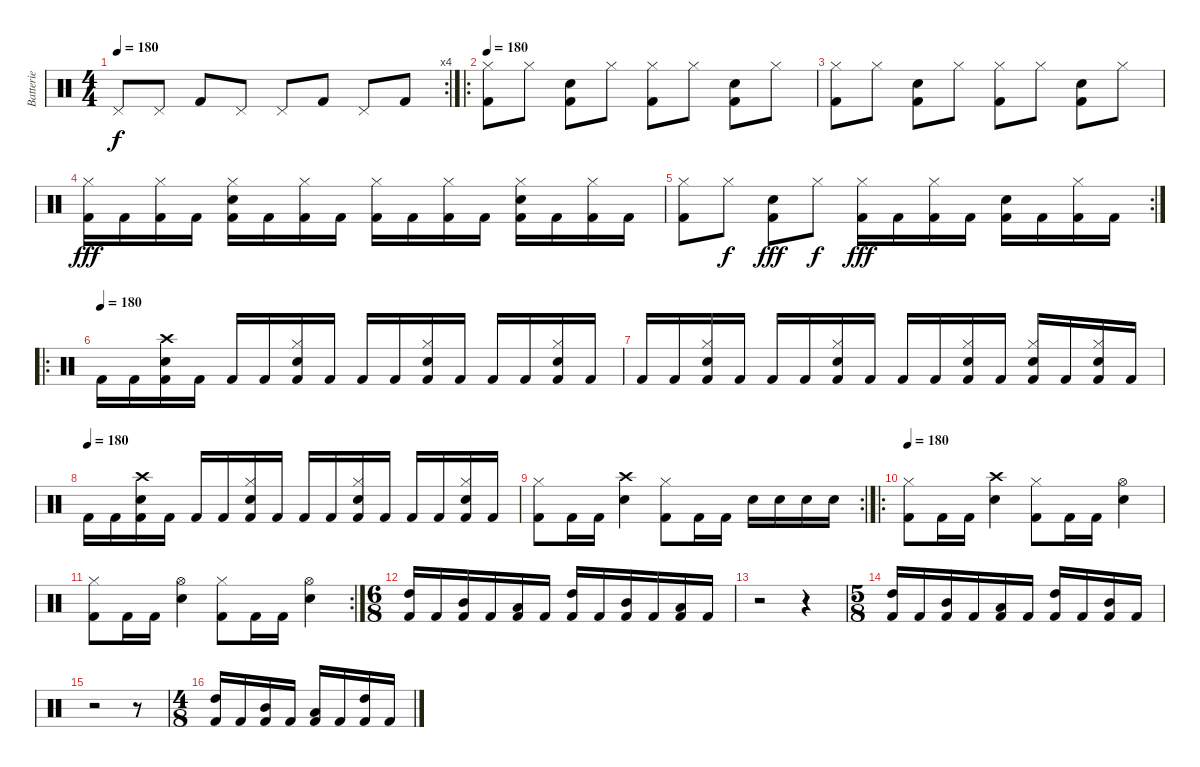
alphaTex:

\track ("Batterie" "Batterie") {instrument percussion}
\staff {score}
\articulation defaults
\rc 4
\ts (4 4)
\tempo 180
\tempo 105
\tempo 180
\clef neutral
\ks c "Pedal Hi-Hat (hit)".8{dy f} "Pedal Hi-Hat (hit)".8 "Kick (hit) 2".8 "Pedal Hi-Hat (hit)".8 "Pedal Hi-Hat (hit)".8 "Kick (hit) 2".8 "Pedal Hi-Hat (hit)".8 "Kick (hit) 2".8
|
\ro
\tempo 180
("Hi-Hat (closed)" "Kick (hit) 2").8 "Hi-Hat (closed)".8 ("Snare (hit) 2" "Kick (hit) 2").8 "Hi-Hat (closed)".8 ("Hi-Hat (closed)" "Kick (hit) 2").8 "Hi-Hat (closed)".8 ("Snare (hit) 2" "Kick (hit) 2").8 "Hi-Hat (closed)".8 |
("Hi-Hat (closed)" "Kick (hit) 2").8 "Hi-Hat (closed)".8 ("Snare (hit) 2" "Kick (hit) 2").8 "Hi-Hat (closed)".8 ("Hi-Hat (closed)" "Kick (hit) 2").8 "Hi-Hat (closed)".8 ("Snare (hit) 2" "Kick (hit) 2").8 "Hi-Hat (closed)".8 |
("Hi-Hat (closed)" "Kick (hit) 2").16{dy fff} "Kick (hit) 2".16 ("Hi-Hat (closed)" "Kick (hit) 2").16 "Kick (hit) 2".16 ("Hi-Hat (closed)" "Snare (hit) 2" "Kick (hit) 2").16 "Kick (hit) 2".16 ("Hi-Hat (closed)" "Kick (hit) 2").16 "Kick (hit) 2".16 ("Hi-Hat (closed)" "Kick (hit) 2").16 "Kick (hit) 2".16 ("Hi-Hat (closed)" "Kick (hit) 2").16 "Kick (hit) 2".16 ("Hi-Hat (closed)" "Snare (hit) 2" "Kick (hit) 2").16 "Kick (hit) 2".16 ("Hi-Hat (closed)" "Kick (hit) 2").16 "Kick (hit) 2".16 |
\rc 2
("Hi-Hat (closed)" "Kick (hit) 2").8 "Hi-Hat (closed)".8{dy f} ("Snare (hit) 2" "Kick (hit) 2").8{dy fff} "Hi-Hat (closed)".8{dy f} ("Hi-Hat (closed)" "Kick (hit) 2").16{dy fff} "Kick (hit) 2".16 ("Hi-Hat (closed)" "Kick (hit) 2").16 "Kick (hit) 2".16 ("Snare (hit) 2" "Kick (hit) 2").16 "Kick (hit) 2".16 ("Hi-Hat (closed)" "Kick (hit) 2").16 "Kick (hit) 2".16 |
\ro
\tempo (180)
"Kick (hit) 2".16 "Kick (hit) 2".16 ("Crash high (hit)" "Snare (hit) 2" "Kick (hit) 2").16 "Kick (hit) 2".16 "Kick (hit) 2".16 "Kick (hit) 2".16 ("Hi-Hat (closed)" "Snare (hit) 2" "Kick (hit) 2").16 "Kick (hit) 2".16 "Kick (hit) 2".16 "Kick (hit) 2".16 ("Hi-Hat (closed)" "Snare (hit) 2" "Kick (hit) 2").16 "Kick (hit) 2".16 "Kick (hit) 2".16 "Kick (hit) 2".16 ("Hi-Hat (closed)" "Snare (hit) 2" "Kick (hit) 2").16 "Kick (hit) 2".16 |
"Kick (hit) 2".16 "Kick (hit) 2".16 ("Hi-Hat (closed)" "Snare (hit) 2" "Kick (hit) 2").16 "Kick (hit) 2".16 "Kick (hit) 2".16 "Kick (hit) 2".16 ("Hi-Hat (closed)" "Snare (hit) 2" "Kick (hit) 2").16 "Kick (hit) 2".16 "Kick (hit) 2".16 "Kick (hit) 2".16 ("Hi-Hat (closed)" "Snare (hit) 2" "Kick (hit) 2").16 "Kick (hit) 2".16 ("Hi-Hat (closed)" "Snare (hit) 2" "Kick (hit) 2").16 "Kick (hit) 2".16 ("Hi-Hat (closed)" "Snare (hit) 2" "Kick (hit) 2").16 "Kick (hit) 2".16 |
\tempo (180)
"Kick (hit) 2".16 "Kick (hit) 2".16 ("Crash high (hit)" "Snare (hit) 2" "Kick (hit) 2").16 "Kick (hit) 2".16 "Kick (hit) 2".16 "Kick (hit) 2".16 ("Hi-Hat (closed)" "Snare (hit) 2" "Kick (hit) 2").16 "Kick (hit) 2".16 "Kick (hit) 2".16 "Kick (hit) 2".16 ("Hi-Hat (closed)" "Snare (hit) 2" "Kick (hit) 2").16 "Kick (hit) 2".16 "Kick (hit) 2".16 "Kick (hit) 2".16 ("Hi-Hat (closed)" "Snare (hit) 2" "Kick (hit) 2").16 "Kick (hit) 2".16 |
\rc 2
("Hi-Hat (closed)" "Kick (hit) 2").8 "Kick (hit) 2".16 "Kick (hit) 2".16 ("Crash high (hit)" "Snare (hit) 2").4 ("Hi-Hat (closed)" "Kick (hit) 2").8 "Kick (hit) 2".16 "Kick (hit) 2".16 "Snare (hit) 2".16 "Snare (hit) 2".16 "Snare (hit) 2".16 "Snare (hit) 2".16 |
\ro
\tempo 180
("Hi-Hat (closed)" "Kick (hit) 2").8 "Kick (hit) 2".16 "Kick (hit) 2".16 ("Crash high (hit)" "Snare (hit) 2").4 ("Hi-Hat (closed)" "Kick (hit) 2").8 "Kick (hit) 2".16 "Kick (hit) 2".16 ("Hi-Hat (open)" "Snare (hit) 2").4 |
\rc 2
("Hi-Hat (closed)" "Kick (hit) 2").8 "Kick (hit) 2".16 "Kick (hit) 2".16 ("Hi-Hat (open)" "Snare (hit) 2").4 ("Hi-Hat (closed)" "Kick (hit) 2").8 "Kick (hit) 2".16 "Kick (hit) 2".16 ("Hi-Hat (open)" "Snare (hit) 2").4 |
\ts (6 8)
("High Tom (hit)" "Kick (hit) 2").16 "Kick (hit) 2".16 ("Mid Tom (hit)" "Kick (hit) 2").16 "Kick (hit) 2".16 ("Low Tom (hit)" "Kick (hit) 2").16 "Kick (hit) 2".16 ("High Tom (hit)" "Kick (hit) 2").16 "Kick (hit) 2".16 ("Mid Tom (hit)" "Kick (hit) 2").16 "Kick (hit) 2".16 ("Low Tom (hit)" "Kick (hit) 2").16 "Kick (hit) 2".16 |
r.2 r.4 |
\ts (5 8)
("High Tom (hit)" "Kick (hit) 2").16 "Kick (hit) 2".16 ("Mid Tom (hit)" "Kick (hit) 2").16 "Kick (hit) 2".16 ("Low Tom (hit)" "Kick (hit) 2").16 "Kick (hit) 2".16 ("High Tom (hit)" "Kick (hit) 2").16 "Kick (hit) 2".16 ("Mid Tom (hit)" "Kick (hit) 2").16 "Kick (hit) 2".16 |
r.2 r.8 |
\ts (4 8)
("High Tom (hit)" "Kick (hit) 2").16 "Kick (hit) 2".16 ("Mid Tom (hit)" "Kick (hit) 2").16 "Kick (hit) 2".16 ("Low Tom (hit)" "Kick (hit) 2").16 "Kick (hit) 2".16 ("High Tom (hit)" "Kick (hit) 2").16 "Kick (hit) 2".16
